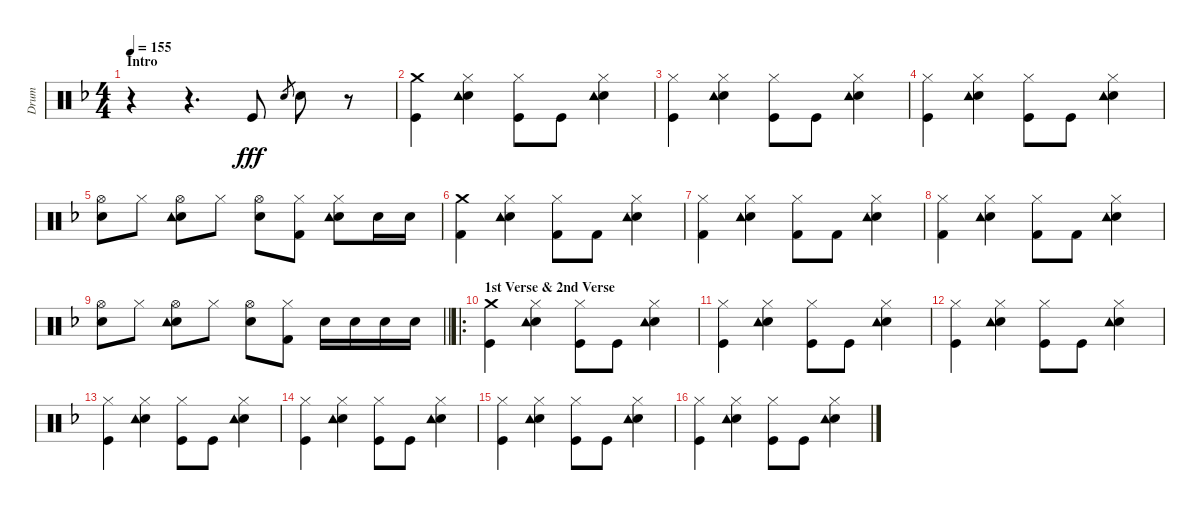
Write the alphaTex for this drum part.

\track ("Drum" "Drum") {instrument percussion}
\staff {score}
\articulation defaults
\ts (4 4)
\section ("" "Intro")
\tempo 155
\clef neutral
\ks f
r.4{dy fff} r.4{d} "Kick (hit)".8 "Electric Snare (hit)".8{gr} "Electric Snare (hit)".8 r.8 |
("Crash medium (hit)" "Kick (hit)").4 ("Hi-Hat (closed)" "Electric Snare (hit)" "Tambourine (hit)").4 ("Hi-Hat (closed)" "Kick (hit)").8 "Kick (hit)".8 ("Hi-Hat (closed)" "Electric Snare (hit)" "Tambourine (hit)").4 |
("Hi-Hat (closed)" "Kick (hit)").4 ("Hi-Hat (closed)" "Electric Snare (hit)" "Tambourine (hit)").4 ("Hi-Hat (closed)" "Kick (hit)").8 "Kick (hit)".8 ("Hi-Hat (closed)" "Electric Snare (hit)" "Tambourine (hit)").4 |
("Hi-Hat (closed)" "Kick (hit)").4 ("Hi-Hat (closed)" "Electric Snare (hit)" "Tambourine (hit)").4 ("Hi-Hat (closed)" "Kick (hit)").8 "Kick (hit)".8 ("Hi-Hat (closed)" "Electric Snare (hit)" "Tambourine (hit)").4 |
("Hi-Hat (open)" "Electric Snare (hit)").8 "Hi-Hat (closed)".8 ("Hi-Hat (open)" "Electric Snare (hit)" "Tambourine (hit)").8 "Hi-Hat (closed)".8 ("Hi-Hat (open)" "Electric Snare (hit)").8 ("Hi-Hat (closed)" "Kick (hit) 2").8 ("Hi-Hat (closed)" "Electric Snare (hit)" "Tambourine (hit)").8 "Electric Snare (hit)".16 "Electric Snare (hit)".16 |
("Crash medium (hit)" "Kick (hit) 2").4 ("Hi-Hat (closed)" "Electric Snare (hit)" "Tambourine (hit)").4 ("Hi-Hat (closed)" "Kick (hit) 2").8 "Kick (hit) 2".8 ("Hi-Hat (closed)" "Electric Snare (hit)" "Tambourine (hit)").4 |
("Hi-Hat (closed)" "Kick (hit) 2").4 ("Hi-Hat (closed)" "Electric Snare (hit)" "Tambourine (hit)").4 ("Hi-Hat (closed)" "Kick (hit) 2").8 "Kick (hit) 2".8 ("Hi-Hat (closed)" "Electric Snare (hit)" "Tambourine (hit)").4 |
("Hi-Hat (closed)" "Kick (hit) 2").4 ("Hi-Hat (closed)" "Electric Snare (hit)" "Tambourine (hit)").4 ("Hi-Hat (closed)" "Kick (hit) 2").8 "Kick (hit) 2".8 ("Hi-Hat (closed)" "Electric Snare (hit)" "Tambourine (hit)").4 |
\barLineRight lightlight
("Hi-Hat (open)" "Electric Snare (hit)").8 "Hi-Hat (closed)".8 ("Hi-Hat (open)" "Electric Snare (hit)" "Tambourine (hit)").8 "Hi-Hat (closed)".8 ("Hi-Hat (open)" "Electric Snare (hit)").8 ("Hi-Hat (closed)" "Kick (hit) 2").8 "Electric Snare (hit)".16 "Electric Snare (hit)".16 "Electric Snare (hit)".16 "Electric Snare (hit)".16 |
\ro
\section ("" "1st Verse & 2nd Verse")
("Crash medium (hit)" "Kick (hit)").4 ("Hi-Hat (closed)" "Electric Snare (hit)" "Tambourine (hit)").4 ("Hi-Hat (closed)" "Kick (hit)").8 "Kick (hit)".8 ("Hi-Hat (closed)" "Electric Snare (hit)" "Tambourine (hit)").4 |
("Hi-Hat (closed)" "Kick (hit)").4 ("Hi-Hat (closed)" "Electric Snare (hit)" "Tambourine (hit)").4 ("Hi-Hat (closed)" "Kick (hit)").8 "Kick (hit)".8 ("Hi-Hat (closed)" "Electric Snare (hit)" "Tambourine (hit)").4 |
("Hi-Hat (closed)" "Kick (hit)").4 ("Hi-Hat (closed)" "Electric Snare (hit)" "Tambourine (hit)").4 ("Hi-Hat (closed)" "Kick (hit)").8 "Kick (hit)".8 ("Hi-Hat (closed)" "Electric Snare (hit)" "Tambourine (hit)").4 |
("Hi-Hat (closed)" "Kick (hit)").4 ("Hi-Hat (closed)" "Electric Snare (hit)" "Tambourine (hit)").4 ("Hi-Hat (closed)" "Kick (hit)").8 "Kick (hit)".8 ("Hi-Hat (closed)" "Electric Snare (hit)" "Tambourine (hit)").4 |
("Hi-Hat (closed)" "Kick (hit)").4 ("Hi-Hat (closed)" "Electric Snare (hit)" "Tambourine (hit)").4 ("Hi-Hat (closed)" "Kick (hit)").8 "Kick (hit)".8 ("Hi-Hat (closed)" "Electric Snare (hit)" "Tambourine (hit)").4 |
("Hi-Hat (closed)" "Kick (hit)").4 ("Hi-Hat (closed)" "Electric Snare (hit)" "Tambourine (hit)").4 ("Hi-Hat (closed)" "Kick (hit)").8 "Kick (hit)".8 ("Hi-Hat (closed)" "Electric Snare (hit)" "Tambourine (hit)").4 |
("Hi-Hat (closed)" "Kick (hit)").4 ("Hi-Hat (closed)" "Electric Snare (hit)" "Tambourine (hit)").4 ("Hi-Hat (closed)" "Kick (hit)").8 "Kick (hit)".8 ("Hi-Hat (closed)" "Electric Snare (hit)" "Tambourine (hit)").4
